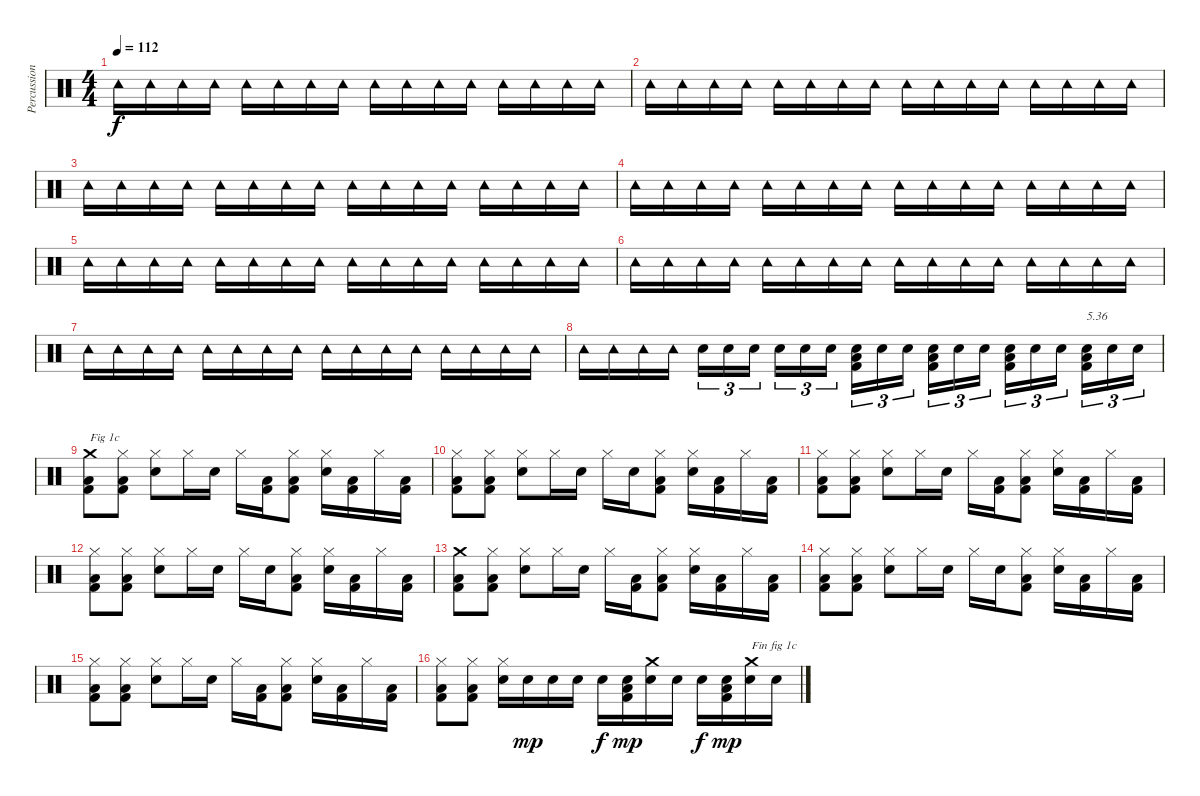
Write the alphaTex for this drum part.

\track ("Percussions" "Percussion") {instrument percussion}
\staff {score}
\articulation defaults
\ts (4 4)
\tempo 112
\clef neutral
\ks c "Tambourine (hit)".16{dy f} "Tambourine (hit)".16 "Tambourine (hit)".16 "Tambourine (hit)".16 "Tambourine (hit)".16 "Tambourine (hit)".16 "Tambourine (hit)".16 "Tambourine (hit)".16 "Tambourine (hit)".16 "Tambourine (hit)".16 "Tambourine (hit)".16 "Tambourine (hit)".16 "Tambourine (hit)".16 "Tambourine (hit)".16 "Tambourine (hit)".16 "Tambourine (hit)".16
|
"Tambourine (hit)".16 "Tambourine (hit)".16 "Tambourine (hit)".16 "Tambourine (hit)".16 "Tambourine (hit)".16 "Tambourine (hit)".16 "Tambourine (hit)".16 "Tambourine (hit)".16 "Tambourine (hit)".16 "Tambourine (hit)".16 "Tambourine (hit)".16 "Tambourine (hit)".16 "Tambourine (hit)".16 "Tambourine (hit)".16 "Tambourine (hit)".16 "Tambourine (hit)".16 |
"Tambourine (hit)".16 "Tambourine (hit)".16 "Tambourine (hit)".16 "Tambourine (hit)".16 "Tambourine (hit)".16 "Tambourine (hit)".16 "Tambourine (hit)".16 "Tambourine (hit)".16 "Tambourine (hit)".16 "Tambourine (hit)".16 "Tambourine (hit)".16 "Tambourine (hit)".16 "Tambourine (hit)".16 "Tambourine (hit)".16 "Tambourine (hit)".16 "Tambourine (hit)".16 |
"Tambourine (hit)".16 "Tambourine (hit)".16 "Tambourine (hit)".16 "Tambourine (hit)".16 "Tambourine (hit)".16 "Tambourine (hit)".16 "Tambourine (hit)".16 "Tambourine (hit)".16 "Tambourine (hit)".16 "Tambourine (hit)".16 "Tambourine (hit)".16 "Tambourine (hit)".16 "Tambourine (hit)".16 "Tambourine (hit)".16 "Tambourine (hit)".16 "Tambourine (hit)".16 |
"Tambourine (hit)".16 "Tambourine (hit)".16 "Tambourine (hit)".16 "Tambourine (hit)".16 "Tambourine (hit)".16 "Tambourine (hit)".16 "Tambourine (hit)".16 "Tambourine (hit)".16 "Tambourine (hit)".16 "Tambourine (hit)".16 "Tambourine (hit)".16 "Tambourine (hit)".16 "Tambourine (hit)".16 "Tambourine (hit)".16 "Tambourine (hit)".16 "Tambourine (hit)".16 |
"Tambourine (hit)".16 "Tambourine (hit)".16 "Tambourine (hit)".16 "Tambourine (hit)".16 "Tambourine (hit)".16 "Tambourine (hit)".16 "Tambourine (hit)".16 "Tambourine (hit)".16 "Tambourine (hit)".16 "Tambourine (hit)".16 "Tambourine (hit)".16 "Tambourine (hit)".16 "Tambourine (hit)".16 "Tambourine (hit)".16 "Tambourine (hit)".16 "Tambourine (hit)".16 |
"Tambourine (hit)".16 "Tambourine (hit)".16 "Tambourine (hit)".16 "Tambourine (hit)".16 "Tambourine (hit)".16 "Tambourine (hit)".16 "Tambourine (hit)".16 "Tambourine (hit)".16 "Tambourine (hit)".16 "Tambourine (hit)".16 "Tambourine (hit)".16 "Tambourine (hit)".16 "Tambourine (hit)".16 "Tambourine (hit)".16 "Tambourine (hit)".16 "Tambourine (hit)".16 |
"Tambourine (hit)".16 "Tambourine (hit)".16 "Tambourine (hit)".16 "Tambourine (hit)".16 "Snare (hit) 2".16{tu (3 2)} "Snare (hit) 2".16{tu (3 2)} "Snare (hit) 2".16{tu (3 2)} "Snare (hit) 2".16{tu (3 2)} "Snare (hit) 2".16{tu (3 2)} "Snare (hit) 2".16{tu (3 2)} ("Kick (hit) 2" "Low Floor Tom (hit)" "Snare (hit) 2").16{tu (3 2)} "Snare (hit) 2".16{tu (3 2)} "Snare (hit) 2".16{tu (3 2)} ("Kick (hit) 2" "Low Floor Tom (hit)" "Snare (hit) 2").16{tu (3 2)} "Snare (hit) 2".16{tu (3 2)} "Snare (hit) 2".16{tu (3 2)} ("Kick (hit) 2" "Low Floor Tom (hit)" "Snare (hit) 2").16{tu (3 2)} "Snare (hit) 2".16{tu (3 2)} "Snare (hit) 2".16{tu (3 2)} ("Kick (hit) 2" "Low Floor Tom (hit)" "Snare (hit) 2").16{tu (3 2) txt "5.36"} "Snare (hit) 2".16{tu (3 2)} "Snare (hit) 2".16{tu (3 2)} |
("Kick (hit) 2" "Low Floor Tom (hit)" "Crash medium (hit)").8{txt "Fig 1c"} ("Kick (hit) 2" "Low Floor Tom (hit)" "Hi-Hat (closed)").8 ("Snare (hit) 2" "Hi-Hat (closed)").8 "Hi-Hat (closed)".16 "Snare (hit) 2".16 "Hi-Hat (closed)".16 ("Kick (hit) 2" "Low Floor Tom (hit)").16 ("Kick (hit) 2" "Low Floor Tom (hit)" "Hi-Hat (closed)").8 ("Snare (hit) 2" "Hi-Hat (closed)").16 ("Kick (hit) 2" "Low Floor Tom (hit)").16 "Hi-Hat (closed)".16 ("Kick (hit) 2" "Low Floor Tom (hit)").16 |
("Kick (hit) 2" "Low Floor Tom (hit)" "Hi-Hat (closed)").8 ("Kick (hit) 2" "Low Floor Tom (hit)" "Hi-Hat (closed)").8 ("Snare (hit) 2" "Hi-Hat (closed)").8 "Hi-Hat (closed)".16 "Snare (hit) 2".16 "Hi-Hat (closed)".16 "Snare (hit) 2".16 ("Kick (hit) 2" "Low Floor Tom (hit)" "Hi-Hat (closed)").8 ("Snare (hit) 2" "Hi-Hat (closed)").16 ("Kick (hit) 2" "Low Floor Tom (hit)").16 "Hi-Hat (closed)".16 ("Kick (hit) 2" "Low Floor Tom (hit)").16 |
("Kick (hit) 2" "Low Floor Tom (hit)" "Hi-Hat (closed)").8 ("Kick (hit) 2" "Low Floor Tom (hit)" "Hi-Hat (closed)").8 ("Snare (hit) 2" "Hi-Hat (closed)").8 "Hi-Hat (closed)".16 "Snare (hit) 2".16 "Hi-Hat (closed)".16 ("Kick (hit) 2" "Low Floor Tom (hit)").16 ("Kick (hit) 2" "Low Floor Tom (hit)" "Hi-Hat (closed)").8 ("Snare (hit) 2" "Hi-Hat (closed)").16 ("Kick (hit) 2" "Low Floor Tom (hit)").16 "Hi-Hat (closed)".16 ("Kick (hit) 2" "Low Floor Tom (hit)").16 |
("Kick (hit) 2" "Low Floor Tom (hit)" "Hi-Hat (closed)").8 ("Kick (hit) 2" "Low Floor Tom (hit)" "Hi-Hat (closed)").8 ("Snare (hit) 2" "Hi-Hat (closed)").8 "Hi-Hat (closed)".16 "Snare (hit) 2".16 "Hi-Hat (closed)".16 "Snare (hit) 2".16 ("Kick (hit) 2" "Low Floor Tom (hit)" "Hi-Hat (closed)").8 ("Snare (hit) 2" "Hi-Hat (closed)").16 ("Kick (hit) 2" "Low Floor Tom (hit)").16 "Hi-Hat (closed)".16 ("Kick (hit) 2" "Low Floor Tom (hit)").16 |
("Kick (hit) 2" "Low Floor Tom (hit)" "Crash medium (hit)").8 ("Kick (hit) 2" "Low Floor Tom (hit)" "Hi-Hat (closed)").8 ("Snare (hit) 2" "Hi-Hat (closed)").8 "Hi-Hat (closed)".16 "Snare (hit) 2".16 "Hi-Hat (closed)".16 ("Kick (hit) 2" "Low Floor Tom (hit)").16 ("Kick (hit) 2" "Low Floor Tom (hit)" "Hi-Hat (closed)").8 ("Snare (hit) 2" "Hi-Hat (closed)").16 ("Kick (hit) 2" "Low Floor Tom (hit)").16 "Hi-Hat (closed)".16 ("Kick (hit) 2" "Low Floor Tom (hit)").16 |
("Kick (hit) 2" "Low Floor Tom (hit)" "Hi-Hat (closed)").8 ("Kick (hit) 2" "Low Floor Tom (hit)" "Hi-Hat (closed)").8 ("Snare (hit) 2" "Hi-Hat (closed)").8 "Hi-Hat (closed)".16 "Snare (hit) 2".16 "Hi-Hat (closed)".16 "Snare (hit) 2".16 ("Kick (hit) 2" "Low Floor Tom (hit)" "Hi-Hat (closed)").8 ("Snare (hit) 2" "Hi-Hat (closed)").16 ("Kick (hit) 2" "Low Floor Tom (hit)").16 "Hi-Hat (closed)".16 ("Kick (hit) 2" "Low Floor Tom (hit)").16 |
("Kick (hit) 2" "Low Floor Tom (hit)" "Hi-Hat (closed)").8 ("Kick (hit) 2" "Low Floor Tom (hit)" "Hi-Hat (closed)").8 ("Snare (hit) 2" "Hi-Hat (closed)").8 "Hi-Hat (closed)".16 "Snare (hit) 2".16 "Hi-Hat (closed)".16 ("Kick (hit) 2" "Low Floor Tom (hit)").16 ("Kick (hit) 2" "Low Floor Tom (hit)" "Hi-Hat (closed)").8 ("Snare (hit) 2" "Hi-Hat (closed)").16 ("Kick (hit) 2" "Low Floor Tom (hit)").16 "Hi-Hat (closed)".16 ("Kick (hit) 2" "Low Floor Tom (hit)").16 |
("Kick (hit) 2" "Low Floor Tom (hit)" "Hi-Hat (closed)").8 ("Kick (hit) 2" "Low Floor Tom (hit)" "Hi-Hat (closed)").8 ("Snare (hit) 2" "Hi-Hat (closed)").16 "Snare (hit) 2".16{dy mp} "Snare (hit) 2".16 "Snare (hit) 2".16 "Snare (hit) 2".16{dy f} ("Kick (hit) 2" "Low Floor Tom (hit)" "Snare (hit) 2").16{dy mp} ("Snare (hit) 2" "Crash medium (hit)").16 "Snare (hit) 2".16 "Snare (hit) 2".16{dy f} ("Kick (hit) 2" "Low Floor Tom (hit)" "Snare (hit) 2").16{dy mp} ("Snare (hit) 2" "Crash medium (hit)").16{txt "Fin fig 1c"} "Snare (hit) 2".16
